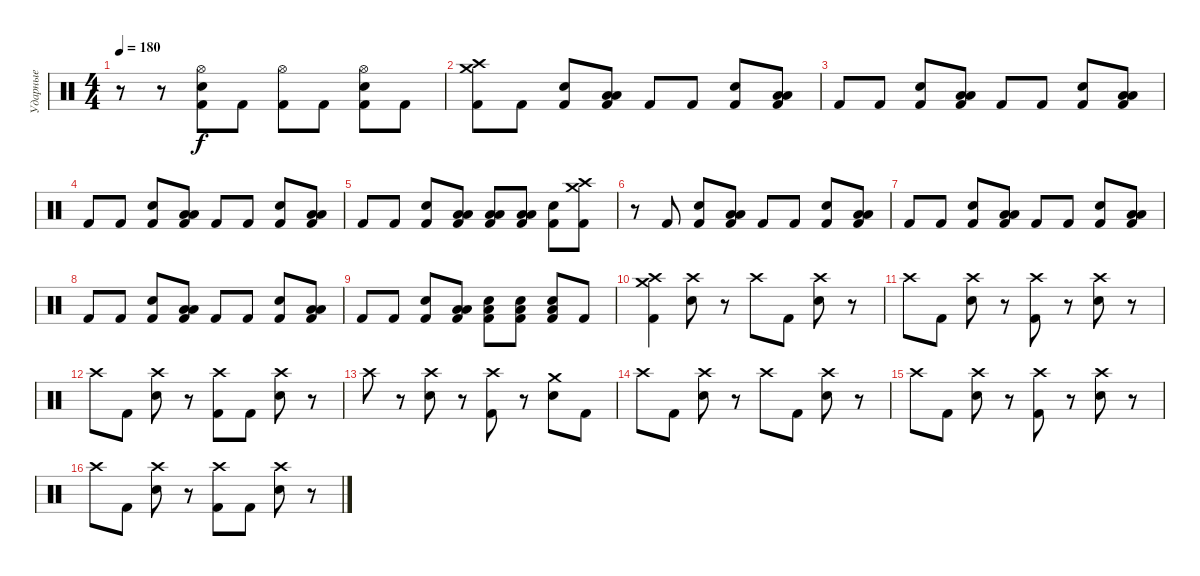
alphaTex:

\track ("Ударные" "Ударные") {instrument percussion}
\staff {score}
\articulation defaults
\ts (4 4)
\tempo 180
\clef neutral
\ks c
r.8{dy f} r.8 ("Hi-Hat (open)" "Electric Snare (hit)" "Kick (hit) 2").8 "Kick (hit) 2".8 ("Hi-Hat (open)" "Kick (hit) 2").8 "Kick (hit) 2".8 ("Hi-Hat (open)" "Electric Snare (hit)" "Kick (hit) 2").8 "Kick (hit) 2".8 |
("Crash medium (hit)" "Crash high (hit)" "Kick (hit) 2").8 "Kick (hit) 2".8 ("Electric Snare (hit)" "Kick (hit) 2").8 ("Low Tom (hit)" "Low Floor Tom (hit)" "Kick (hit) 2").8 "Kick (hit) 2".8 "Kick (hit) 2".8 ("Electric Snare (hit)" "Kick (hit) 2").8 ("Low Tom (hit)" "Low Floor Tom (hit)" "Kick (hit) 2").8 |
"Kick (hit) 2".8 "Kick (hit) 2".8 ("Electric Snare (hit)" "Kick (hit) 2").8 ("Low Tom (hit)" "Low Floor Tom (hit)" "Kick (hit) 2").8 "Kick (hit) 2".8 "Kick (hit) 2".8 ("Electric Snare (hit)" "Kick (hit) 2").8 ("Low Tom (hit)" "Low Floor Tom (hit)" "Kick (hit) 2").8 |
"Kick (hit) 2".8 "Kick (hit) 2".8 ("Electric Snare (hit)" "Kick (hit) 2").8 ("Low Tom (hit)" "Low Floor Tom (hit)" "Kick (hit) 2").8 "Kick (hit) 2".8 "Kick (hit) 2".8 ("Electric Snare (hit)" "Kick (hit) 2").8 ("Low Tom (hit)" "Low Floor Tom (hit)" "Kick (hit) 2").8 |
"Kick (hit) 2".8 "Kick (hit) 2".8 ("Electric Snare (hit)" "Kick (hit) 2").8 ("Low Tom (hit)" "Low Floor Tom (hit)" "Kick (hit) 2").8 ("Low Tom (hit)" "Low Floor Tom (hit)" "Kick (hit) 2").8 ("Low Tom (hit)" "Low Floor Tom (hit)" "Kick (hit) 2").8 ("Electric Snare (hit)" "Kick (hit) 2").8 ("Crash medium (hit)" "Crash high (hit)" "Kick (hit) 2").8 |
r.8 "Kick (hit) 2".8 ("Electric Snare (hit)" "Kick (hit) 2").8 ("Low Tom (hit)" "Low Floor Tom (hit)" "Kick (hit) 2").8 "Kick (hit) 2".8 "Kick (hit) 2".8 ("Electric Snare (hit)" "Kick (hit) 2").8 ("Low Tom (hit)" "Low Floor Tom (hit)" "Kick (hit) 2").8 |
"Kick (hit) 2".8 "Kick (hit) 2".8 ("Electric Snare (hit)" "Kick (hit) 2").8 ("Low Tom (hit)" "Low Floor Tom (hit)" "Kick (hit) 2").8 "Kick (hit) 2".8 "Kick (hit) 2".8 ("Electric Snare (hit)" "Kick (hit) 2").8 ("Low Tom (hit)" "Low Floor Tom (hit)" "Kick (hit) 2").8 |
"Kick (hit) 2".8 "Kick (hit) 2".8 ("Electric Snare (hit)" "Kick (hit) 2").8 ("Low Tom (hit)" "Low Floor Tom (hit)" "Kick (hit) 2").8 "Kick (hit) 2".8 "Kick (hit) 2".8 ("Electric Snare (hit)" "Kick (hit) 2").8 ("Low Tom (hit)" "Low Floor Tom (hit)" "Kick (hit) 2").8 |
"Kick (hit) 2".8 "Kick (hit) 2".8 ("Electric Snare (hit)" "Kick (hit) 2").8 ("Low Tom (hit)" "Low Floor Tom (hit)" "Kick (hit) 2").8 ("Low Floor Tom (hit)" "Electric Snare (hit)" "Kick (hit) 2").8 ("Low Floor Tom (hit)" "Electric Snare (hit)" "Kick (hit) 2").8 ("Low Floor Tom (hit)" "Electric Snare (hit)" "Kick (hit) 2").8 "Kick (hit) 2".8 |
("Crash medium (hit)" "Crash high (hit)" "Kick (hit) 2").4 ("Crash high (hit)" "Electric Snare (hit)").8 r.8 "Crash high (hit)".8 "Kick (hit) 2".8 ("Crash high (hit)" "Electric Snare (hit)").8 r.8 |
"Crash high (hit)".8 "Kick (hit) 2".8 ("Crash high (hit)" "Electric Snare (hit)").8 r.8 ("Crash high (hit)" "Kick (hit) 2").8 r.8 ("Crash high (hit)" "Electric Snare (hit)").8 r.8 |
"Crash high (hit)".8 "Kick (hit) 2".8 ("Crash high (hit)" "Electric Snare (hit)").8 r.8 ("Crash high (hit)" "Kick (hit) 2").8 "Kick (hit) 2".8 ("Crash high (hit)" "Electric Snare (hit)").8 r.8 |
"Crash high (hit)".8 r.8 ("Crash high (hit)" "Electric Snare (hit)").8 r.8 ("Crash high (hit)" "Kick (hit) 2").8 r.8 ("Crash medium (hit)" "Electric Snare (hit)").8 "Kick (hit) 2".8 |
"Crash high (hit)".8 "Kick (hit) 2".8 ("Crash high (hit)" "Electric Snare (hit)").8 r.8 "Crash high (hit)".8 "Kick (hit) 2".8 ("Crash high (hit)" "Electric Snare (hit)").8 r.8 |
"Crash high (hit)".8 "Kick (hit) 2".8 ("Crash high (hit)" "Electric Snare (hit)").8 r.8 ("Crash high (hit)" "Kick (hit) 2").8 r.8 ("Crash high (hit)" "Electric Snare (hit)").8 r.8 |
"Crash high (hit)".8 "Kick (hit) 2".8 ("Crash high (hit)" "Electric Snare (hit)").8 r.8 ("Crash high (hit)" "Kick (hit) 2").8 "Kick (hit) 2".8 ("Crash high (hit)" "Electric Snare (hit)").8 r.8
